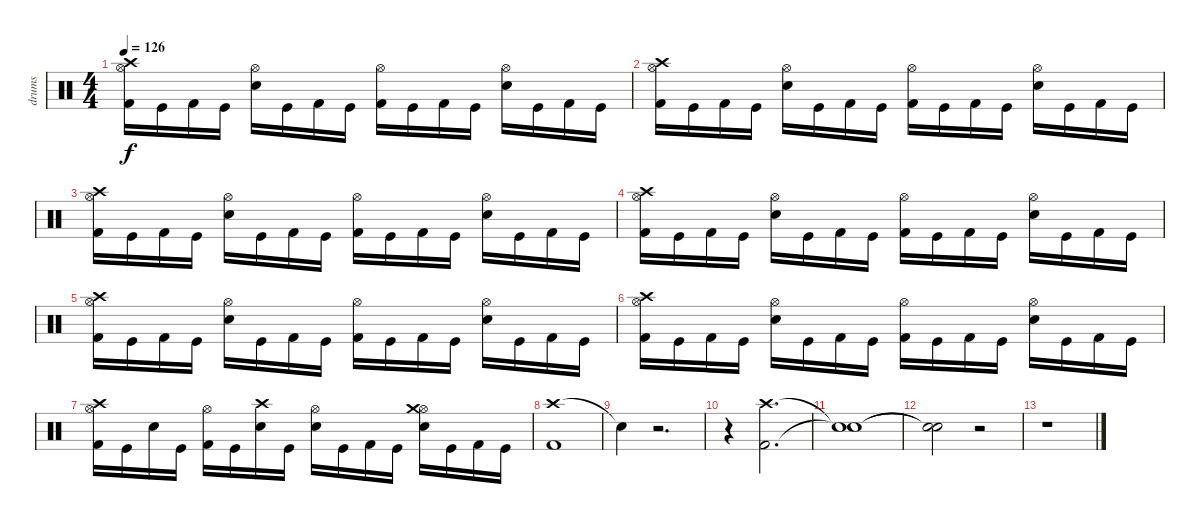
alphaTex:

\track ("drums" "drums") {instrument percussion}
\staff {score}
\articulation defaults
\ts (4 4)
\tempo 126
\clef neutral
\ks c
("Kick (hit) 2" "Hi-Hat (open)" "Crash high (hit)").16{dy f} "Kick (hit)".16 "Kick (hit) 2".16 "Kick (hit)".16 ("Electric Snare (hit)" "Hi-Hat (open)").16 "Kick (hit)".16 "Kick (hit) 2".16 "Kick (hit)".16 ("Kick (hit) 2" "Hi-Hat (open)").16 "Kick (hit)".16 "Kick (hit) 2".16 "Kick (hit)".16 ("Electric Snare (hit)" "Hi-Hat (open)").16 "Kick (hit)".16 "Kick (hit) 2".16 "Kick (hit)".16 |
("Kick (hit) 2" "Hi-Hat (open)" "Crash high (hit)").16 "Kick (hit)".16 "Kick (hit) 2".16 "Kick (hit)".16 ("Electric Snare (hit)" "Hi-Hat (open)").16 "Kick (hit)".16 "Kick (hit) 2".16 "Kick (hit)".16 ("Kick (hit) 2" "Hi-Hat (open)").16 "Kick (hit)".16 "Kick (hit) 2".16 "Kick (hit)".16 ("Electric Snare (hit)" "Hi-Hat (open)").16 "Kick (hit)".16 "Kick (hit) 2".16 "Kick (hit)".16 |
("Kick (hit) 2" "Hi-Hat (open)" "Crash high (hit)").16 "Kick (hit)".16 "Kick (hit) 2".16 "Kick (hit)".16 ("Electric Snare (hit)" "Hi-Hat (open)").16 "Kick (hit)".16 "Kick (hit) 2".16 "Kick (hit)".16 ("Kick (hit) 2" "Hi-Hat (open)").16 "Kick (hit)".16 "Kick (hit) 2".16 "Kick (hit)".16 ("Electric Snare (hit)" "Hi-Hat (open)").16 "Kick (hit)".16 "Kick (hit) 2".16 "Kick (hit)".16 |
("Kick (hit) 2" "Hi-Hat (open)" "Crash high (hit)").16 "Kick (hit)".16 "Kick (hit) 2".16 "Kick (hit)".16 ("Electric Snare (hit)" "Hi-Hat (open)").16 "Kick (hit)".16 "Kick (hit) 2".16 "Kick (hit)".16 ("Kick (hit) 2" "Hi-Hat (open)").16 "Kick (hit)".16 "Kick (hit) 2".16 "Kick (hit)".16 ("Electric Snare (hit)" "Hi-Hat (open)").16 "Kick (hit)".16 "Kick (hit) 2".16 "Kick (hit)".16 |
("Kick (hit) 2" "Hi-Hat (open)" "Crash high (hit)").16 "Kick (hit)".16 "Kick (hit) 2".16 "Kick (hit)".16 ("Electric Snare (hit)" "Hi-Hat (open)").16 "Kick (hit)".16 "Kick (hit) 2".16 "Kick (hit)".16 ("Kick (hit) 2" "Hi-Hat (open)").16 "Kick (hit)".16 "Kick (hit) 2".16 "Kick (hit)".16 ("Electric Snare (hit)" "Hi-Hat (open)").16 "Kick (hit)".16 "Kick (hit) 2".16 "Kick (hit)".16 |
("Kick (hit) 2" "Hi-Hat (open)" "Crash high (hit)").16 "Kick (hit)".16 "Kick (hit) 2".16 "Kick (hit)".16 ("Electric Snare (hit)" "Hi-Hat (open)").16 "Kick (hit)".16 "Kick (hit) 2".16 "Kick (hit)".16 ("Kick (hit) 2" "Hi-Hat (open)").16 "Kick (hit)".16 "Kick (hit) 2".16 "Kick (hit)".16 ("Electric Snare (hit)" "Hi-Hat (open)").16 "Kick (hit)".16 "Kick (hit) 2".16 "Kick (hit)".16 |
("Kick (hit) 2" "Hi-Hat (open)" "Crash high (hit)").16 "Kick (hit)".16 "Electric Snare (hit)".16 "Kick (hit)".16 ("Kick (hit) 2" "Hi-Hat (open)").16 "Kick (hit)".16 ("Electric Snare (hit)" "Crash high (hit)").16 "Kick (hit)".16 ("Electric Snare (hit)" "Hi-Hat (open)").16 "Kick (hit)".16 "Kick (hit) 2".16 "Kick (hit)".16 ("Electric Snare (hit)" "Hi-Hat (open)" "Crash medium (hit)").16 "Kick (hit)".16 "Kick (hit) 2".16 "Kick (hit)".16 |
("Crash high (hit)" "Kick (hit) 2").1 |
"Snare (hit)"{t}.4 r.2{d} |
r.4 ("Crash high (hit)" "Kick (hit) 2").2{d} |
("Snare (hit)"{t} "Snare (hit)"{t}).1 |
("Snare (hit)"{t} "Snare (hit)"{t}).2 r.2 |
r.1
